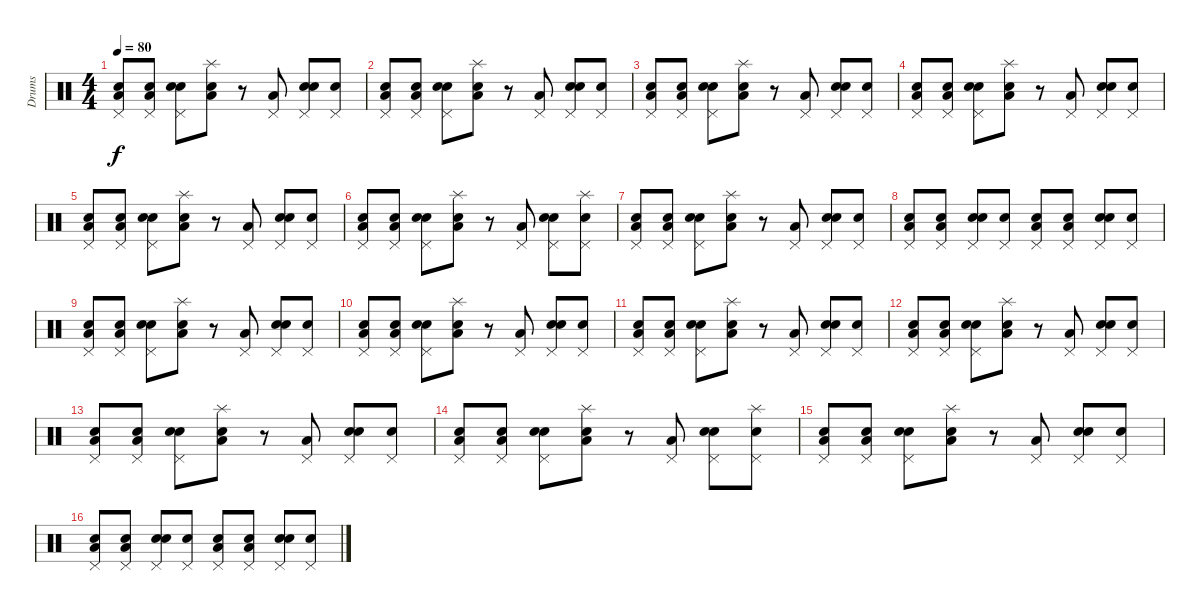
\track ("Drums" "Drums") {instrument percussion}
\staff {score}
\articulation defaults
\ts (4 4)
\tempo 80
\clef neutral
\ks c
("Snare (hit)" "Low Floor Tom (hit)" "Pedal Hi-Hat (hit)").8{dy f} ("Snare (hit)" "Low Floor Tom (hit)" "Pedal Hi-Hat (hit)").8 ("Snare (hit)" "Electric Snare (hit)" "Pedal Hi-Hat (hit)").8 ("Snare (hit)" "Low Floor Tom (hit)" "Splash (hit)").8 r.8 ("Low Floor Tom (hit)" "Pedal Hi-Hat (hit)").8 ("Snare (hit)" "Electric Snare (hit)" "Pedal Hi-Hat (hit)").8 ("Snare (hit)" "Pedal Hi-Hat (hit)").8 |
("Snare (hit)" "Low Floor Tom (hit)" "Pedal Hi-Hat (hit)").8 ("Snare (hit)" "Low Floor Tom (hit)" "Pedal Hi-Hat (hit)").8 ("Snare (hit)" "Electric Snare (hit)" "Pedal Hi-Hat (hit)").8 ("Snare (hit)" "Low Floor Tom (hit)" "Splash (hit)").8 r.8 ("Low Floor Tom (hit)" "Pedal Hi-Hat (hit)").8 ("Snare (hit)" "Electric Snare (hit)" "Pedal Hi-Hat (hit)").8 ("Snare (hit)" "Pedal Hi-Hat (hit)").8 |
("Snare (hit)" "Low Floor Tom (hit)" "Pedal Hi-Hat (hit)").8 ("Snare (hit)" "Low Floor Tom (hit)" "Pedal Hi-Hat (hit)").8 ("Snare (hit)" "Electric Snare (hit)" "Pedal Hi-Hat (hit)").8 ("Snare (hit)" "Low Floor Tom (hit)" "Splash (hit)").8 r.8 ("Low Floor Tom (hit)" "Pedal Hi-Hat (hit)").8 ("Snare (hit)" "Electric Snare (hit)" "Pedal Hi-Hat (hit)").8 ("Snare (hit)" "Pedal Hi-Hat (hit)").8 |
("Snare (hit)" "Low Floor Tom (hit)" "Pedal Hi-Hat (hit)").8 ("Snare (hit)" "Low Floor Tom (hit)" "Pedal Hi-Hat (hit)").8 ("Snare (hit)" "Electric Snare (hit)" "Pedal Hi-Hat (hit)").8 ("Snare (hit)" "Low Floor Tom (hit)" "Splash (hit)").8 r.8 ("Low Floor Tom (hit)" "Pedal Hi-Hat (hit)").8 ("Snare (hit)" "Electric Snare (hit)" "Pedal Hi-Hat (hit)").8 ("Snare (hit)" "Pedal Hi-Hat (hit)").8 |
("Snare (hit)" "Low Floor Tom (hit)" "Pedal Hi-Hat (hit)").8 ("Snare (hit)" "Low Floor Tom (hit)" "Pedal Hi-Hat (hit)").8 ("Snare (hit)" "Electric Snare (hit)" "Pedal Hi-Hat (hit)").8 ("Snare (hit)" "Low Floor Tom (hit)" "Splash (hit)").8 r.8 ("Low Floor Tom (hit)" "Pedal Hi-Hat (hit)").8 ("Snare (hit)" "Electric Snare (hit)" "Pedal Hi-Hat (hit)").8 ("Snare (hit)" "Pedal Hi-Hat (hit)").8 |
("Snare (hit)" "Low Floor Tom (hit)" "Pedal Hi-Hat (hit)").8 ("Snare (hit)" "Low Floor Tom (hit)" "Pedal Hi-Hat (hit)").8 ("Snare (hit)" "Electric Snare (hit)" "Pedal Hi-Hat (hit)").8 ("Snare (hit)" "Low Floor Tom (hit)" "Splash (hit)").8 r.8 ("Low Floor Tom (hit)" "Pedal Hi-Hat (hit)").8 ("Snare (hit)" "Electric Snare (hit)" "Pedal Hi-Hat (hit)").8 ("Snare (hit)" "Pedal Hi-Hat (hit)" "Splash (hit)").8 |
("Snare (hit)" "Low Floor Tom (hit)" "Pedal Hi-Hat (hit)").8 ("Snare (hit)" "Low Floor Tom (hit)" "Pedal Hi-Hat (hit)").8 ("Snare (hit)" "Electric Snare (hit)" "Pedal Hi-Hat (hit)").8 ("Snare (hit)" "Low Floor Tom (hit)" "Splash (hit)").8 r.8 ("Low Floor Tom (hit)" "Pedal Hi-Hat (hit)").8 ("Snare (hit)" "Electric Snare (hit)" "Pedal Hi-Hat (hit)").8 ("Snare (hit)" "Pedal Hi-Hat (hit)").8 |
("Snare (hit)" "Low Floor Tom (hit)" "Pedal Hi-Hat (hit)").8 ("Snare (hit)" "Low Floor Tom (hit)" "Pedal Hi-Hat (hit)").8 ("Snare (hit)" "Electric Snare (hit)" "Pedal Hi-Hat (hit)").8 ("Snare (hit)" "Pedal Hi-Hat (hit)").8 ("Snare (hit)" "Low Floor Tom (hit)" "Pedal Hi-Hat (hit)").8 ("Snare (hit)" "Low Floor Tom (hit)" "Pedal Hi-Hat (hit)").8 ("Snare (hit)" "Electric Snare (hit)" "Pedal Hi-Hat (hit)").8 ("Snare (hit)" "Pedal Hi-Hat (hit)").8 |
("Snare (hit)" "Low Floor Tom (hit)" "Pedal Hi-Hat (hit)").8 ("Snare (hit)" "Low Floor Tom (hit)" "Pedal Hi-Hat (hit)").8 ("Snare (hit)" "Electric Snare (hit)" "Pedal Hi-Hat (hit)").8 ("Snare (hit)" "Low Floor Tom (hit)" "Splash (hit)").8 r.8 ("Low Floor Tom (hit)" "Pedal Hi-Hat (hit)").8 ("Snare (hit)" "Electric Snare (hit)" "Pedal Hi-Hat (hit)").8 ("Snare (hit)" "Pedal Hi-Hat (hit)").8 |
("Snare (hit)" "Low Floor Tom (hit)" "Pedal Hi-Hat (hit)").8 ("Snare (hit)" "Low Floor Tom (hit)" "Pedal Hi-Hat (hit)").8 ("Snare (hit)" "Electric Snare (hit)" "Pedal Hi-Hat (hit)").8 ("Snare (hit)" "Low Floor Tom (hit)" "Splash (hit)").8 r.8 ("Low Floor Tom (hit)" "Pedal Hi-Hat (hit)").8 ("Snare (hit)" "Electric Snare (hit)" "Pedal Hi-Hat (hit)").8 ("Snare (hit)" "Pedal Hi-Hat (hit)").8 |
("Snare (hit)" "Low Floor Tom (hit)" "Pedal Hi-Hat (hit)").8 ("Snare (hit)" "Low Floor Tom (hit)" "Pedal Hi-Hat (hit)").8 ("Snare (hit)" "Electric Snare (hit)" "Pedal Hi-Hat (hit)").8 ("Snare (hit)" "Low Floor Tom (hit)" "Splash (hit)").8 r.8 ("Low Floor Tom (hit)" "Pedal Hi-Hat (hit)").8 ("Snare (hit)" "Electric Snare (hit)" "Pedal Hi-Hat (hit)").8 ("Snare (hit)" "Pedal Hi-Hat (hit)").8 |
("Snare (hit)" "Low Floor Tom (hit)" "Pedal Hi-Hat (hit)").8 ("Snare (hit)" "Low Floor Tom (hit)" "Pedal Hi-Hat (hit)").8 ("Snare (hit)" "Electric Snare (hit)" "Pedal Hi-Hat (hit)").8 ("Snare (hit)" "Low Floor Tom (hit)" "Splash (hit)").8 r.8 ("Low Floor Tom (hit)" "Pedal Hi-Hat (hit)").8 ("Snare (hit)" "Electric Snare (hit)" "Pedal Hi-Hat (hit)").8 ("Snare (hit)" "Pedal Hi-Hat (hit)").8 |
("Snare (hit)" "Low Floor Tom (hit)" "Pedal Hi-Hat (hit)").8 ("Snare (hit)" "Low Floor Tom (hit)" "Pedal Hi-Hat (hit)").8 ("Snare (hit)" "Electric Snare (hit)" "Pedal Hi-Hat (hit)").8 ("Snare (hit)" "Low Floor Tom (hit)" "Splash (hit)").8 r.8 ("Low Floor Tom (hit)" "Pedal Hi-Hat (hit)").8 ("Snare (hit)" "Electric Snare (hit)" "Pedal Hi-Hat (hit)").8 ("Snare (hit)" "Pedal Hi-Hat (hit)").8 |
("Snare (hit)" "Low Floor Tom (hit)" "Pedal Hi-Hat (hit)").8 ("Snare (hit)" "Low Floor Tom (hit)" "Pedal Hi-Hat (hit)").8 ("Snare (hit)" "Electric Snare (hit)" "Pedal Hi-Hat (hit)").8 ("Snare (hit)" "Low Floor Tom (hit)" "Splash (hit)").8 r.8 ("Low Floor Tom (hit)" "Pedal Hi-Hat (hit)").8 ("Snare (hit)" "Electric Snare (hit)" "Pedal Hi-Hat (hit)").8 ("Snare (hit)" "Pedal Hi-Hat (hit)" "Splash (hit)").8 |
("Snare (hit)" "Low Floor Tom (hit)" "Pedal Hi-Hat (hit)").8 ("Snare (hit)" "Low Floor Tom (hit)" "Pedal Hi-Hat (hit)").8 ("Snare (hit)" "Electric Snare (hit)" "Pedal Hi-Hat (hit)").8 ("Snare (hit)" "Low Floor Tom (hit)" "Splash (hit)").8 r.8 ("Low Floor Tom (hit)" "Pedal Hi-Hat (hit)").8 ("Snare (hit)" "Electric Snare (hit)" "Pedal Hi-Hat (hit)").8 ("Snare (hit)" "Pedal Hi-Hat (hit)").8 |
("Snare (hit)" "Low Floor Tom (hit)" "Pedal Hi-Hat (hit)").8 ("Snare (hit)" "Low Floor Tom (hit)" "Pedal Hi-Hat (hit)").8 ("Snare (hit)" "Electric Snare (hit)" "Pedal Hi-Hat (hit)").8 ("Snare (hit)" "Pedal Hi-Hat (hit)").8 ("Snare (hit)" "Low Floor Tom (hit)" "Pedal Hi-Hat (hit)").8 ("Snare (hit)" "Low Floor Tom (hit)" "Pedal Hi-Hat (hit)").8 ("Snare (hit)" "Electric Snare (hit)" "Pedal Hi-Hat (hit)").8 ("Snare (hit)" "Pedal Hi-Hat (hit)").8
